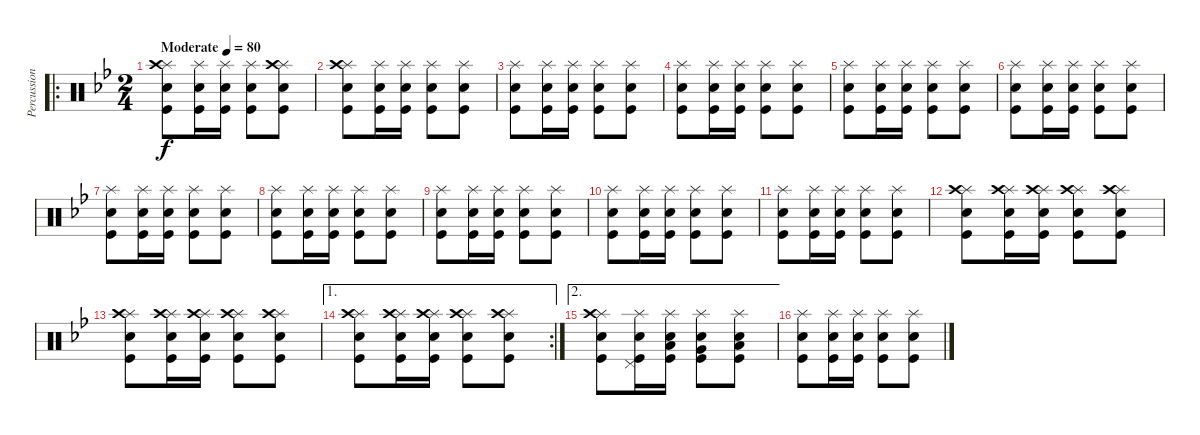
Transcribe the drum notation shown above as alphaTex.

\track ("Percussion" "Percussion") {instrument percussion}
\staff {score}
\articulation defaults
\ro
\ts (2 4)
\tempo (80 "Moderate")
\clef neutral
\ks bb
("Splash (hit)" "Kick (hit)" "Snare (hit) 2" "Crash high (hit)").8{dy f} ("Splash (hit)" "Kick (hit)" "Snare (hit) 2").16 ("Splash (hit)" "Kick (hit)" "Snare (hit) 2").16 ("Splash (hit)" "Kick (hit)" "Snare (hit) 2").8 ("Splash (hit)" "Kick (hit)" "Snare (hit) 2" "Crash high (hit)").8 |
("Splash (hit)" "Kick (hit)" "Snare (hit) 2" "Crash high (hit)").8 ("Splash (hit)" "Kick (hit)" "Snare (hit) 2").16 ("Splash (hit)" "Kick (hit)" "Snare (hit) 2").16 ("Splash (hit)" "Kick (hit)" "Snare (hit) 2").8 ("Splash (hit)" "Kick (hit)" "Snare (hit) 2").8 |
("Splash (hit)" "Kick (hit)" "Snare (hit) 2").8 ("Splash (hit)" "Kick (hit)" "Snare (hit) 2").16 ("Splash (hit)" "Kick (hit)" "Snare (hit) 2").16 ("Splash (hit)" "Kick (hit)" "Snare (hit) 2").8 ("Splash (hit)" "Kick (hit)" "Snare (hit) 2").8 |
("Splash (hit)" "Kick (hit)" "Snare (hit) 2").8 ("Splash (hit)" "Kick (hit)" "Snare (hit) 2").16 ("Splash (hit)" "Kick (hit)" "Snare (hit) 2").16 ("Splash (hit)" "Kick (hit)" "Snare (hit) 2").8 ("Splash (hit)" "Kick (hit)" "Snare (hit) 2").8 |
("Splash (hit)" "Kick (hit)" "Snare (hit) 2").8 ("Splash (hit)" "Kick (hit)" "Snare (hit) 2").16 ("Splash (hit)" "Kick (hit)" "Snare (hit) 2").16 ("Splash (hit)" "Kick (hit)" "Snare (hit) 2").8 ("Splash (hit)" "Kick (hit)" "Snare (hit) 2").8 |
("Splash (hit)" "Kick (hit)" "Snare (hit) 2").8 ("Splash (hit)" "Kick (hit)" "Snare (hit) 2").16 ("Splash (hit)" "Kick (hit)" "Snare (hit) 2").16 ("Splash (hit)" "Kick (hit)" "Snare (hit) 2").8 ("Splash (hit)" "Kick (hit)" "Snare (hit) 2").8 |
("Splash (hit)" "Kick (hit)" "Snare (hit) 2").8 ("Splash (hit)" "Kick (hit)" "Snare (hit) 2").16 ("Splash (hit)" "Kick (hit)" "Snare (hit) 2").16 ("Splash (hit)" "Kick (hit)" "Snare (hit) 2").8 ("Splash (hit)" "Kick (hit)" "Snare (hit) 2").8 |
("Splash (hit)" "Kick (hit)" "Snare (hit) 2").8 ("Splash (hit)" "Kick (hit)" "Snare (hit) 2").16 ("Splash (hit)" "Kick (hit)" "Snare (hit) 2").16 ("Splash (hit)" "Kick (hit)" "Snare (hit) 2").8 ("Splash (hit)" "Kick (hit)" "Snare (hit) 2").8 |
("Splash (hit)" "Kick (hit)" "Snare (hit) 2").8 ("Splash (hit)" "Kick (hit)" "Snare (hit) 2").16 ("Splash (hit)" "Kick (hit)" "Snare (hit) 2").16 ("Splash (hit)" "Kick (hit)" "Snare (hit) 2").8 ("Splash (hit)" "Kick (hit)" "Snare (hit) 2").8 |
("Splash (hit)" "Kick (hit)" "Snare (hit) 2").8 ("Splash (hit)" "Kick (hit)" "Snare (hit) 2").16 ("Splash (hit)" "Kick (hit)" "Snare (hit) 2").16 ("Splash (hit)" "Kick (hit)" "Snare (hit) 2").8 ("Splash (hit)" "Kick (hit)" "Snare (hit) 2").8 |
("Splash (hit)" "Kick (hit)" "Snare (hit) 2").8 ("Splash (hit)" "Kick (hit)" "Snare (hit) 2").16 ("Splash (hit)" "Kick (hit)" "Snare (hit) 2").16 ("Splash (hit)" "Kick (hit)" "Snare (hit) 2").8 ("Splash (hit)" "Kick (hit)" "Snare (hit) 2").8 |
("Splash (hit)" "Kick (hit)" "Snare (hit) 2" "Crash high (hit)").8 ("Splash (hit)" "Kick (hit)" "Snare (hit) 2" "Crash high (hit)").16 ("Splash (hit)" "Kick (hit)" "Snare (hit) 2" "Crash high (hit)").16 ("Splash (hit)" "Kick (hit)" "Snare (hit) 2" "Crash high (hit)").8 ("Splash (hit)" "Kick (hit)" "Snare (hit) 2" "Crash high (hit)").8 |
("Splash (hit)" "Kick (hit)" "Snare (hit) 2" "Crash high (hit)").8 ("Splash (hit)" "Kick (hit)" "Snare (hit) 2" "Crash high (hit)").16 ("Splash (hit)" "Kick (hit)" "Snare (hit) 2" "Crash high (hit)").16 ("Splash (hit)" "Kick (hit)" "Snare (hit) 2" "Crash high (hit)").8 ("Splash (hit)" "Kick (hit)" "Snare (hit) 2" "Crash high (hit)").8 |
\ae 1
\rc 2
("Splash (hit)" "Kick (hit)" "Snare (hit) 2" "Crash high (hit)").8 ("Splash (hit)" "Kick (hit)" "Snare (hit) 2" "Crash high (hit)").16 ("Splash (hit)" "Kick (hit)" "Snare (hit) 2" "Crash high (hit)").16 ("Splash (hit)" "Kick (hit)" "Snare (hit) 2" "Crash high (hit)").8 ("Splash (hit)" "Kick (hit)" "Snare (hit) 2" "Crash high (hit)").8 |
\ae 2
("Splash (hit)" "Kick (hit)" "Snare (hit) 2" "Crash high (hit)").8 ("Splash (hit)" "Kick (hit)" "Snare (hit) 2" "Pedal Hi-Hat (hit)").16 ("Splash (hit)" "Kick (hit)" "Snare (hit) 2" "Low Tom (hit)").16 ("Splash (hit)" "Kick (hit)" "Snare (hit) 2" "Very Low Tom (hit)").8 ("Splash (hit)" "Kick (hit)" "Snare (hit) 2" "Low Floor Tom (hit)").8 |
("Splash (hit)" "Kick (hit)" "Snare (hit) 2").8 ("Splash (hit)" "Kick (hit)" "Snare (hit) 2").16 ("Splash (hit)" "Kick (hit)" "Snare (hit) 2").16 ("Splash (hit)" "Kick (hit)" "Snare (hit) 2").8 ("Splash (hit)" "Kick (hit)" "Snare (hit) 2").8
